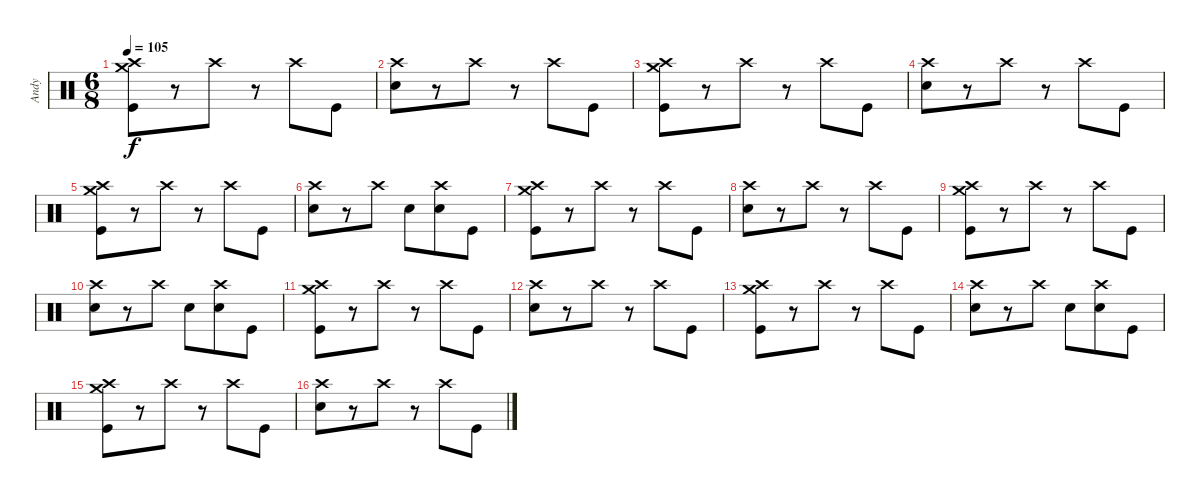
\track ("Andy" "Andy") {instrument percussion}
\staff {score}
\articulation defaults
\ts (6 8)
\tempo 105
\clef neutral
\ks c
("Kick (hit)" "Crash high (hit)" "Crash medium (hit)").8{dy f} r.8 "Crash high (hit)".8 r.8 "Crash high (hit)".8 "Kick (hit)".8 |
("Snare (hit) 2" "Crash high (hit)").8 r.8 "Crash high (hit)".8 r.8 "Crash high (hit)".8 "Kick (hit)".8 |
("Kick (hit)" "Crash high (hit)" "Crash medium (hit)").8 r.8 "Crash high (hit)".8 r.8 "Crash high (hit)".8 "Kick (hit)".8 |
("Snare (hit) 2" "Crash high (hit)").8 r.8 "Crash high (hit)".8 r.8 "Crash high (hit)".8 "Kick (hit)".8 |
("Kick (hit)" "Crash high (hit)" "Crash medium (hit)").8 r.8 "Crash high (hit)".8 r.8 "Crash high (hit)".8 "Kick (hit)".8 |
("Snare (hit) 2" "Crash high (hit)").8 r.8 "Crash high (hit)".8 "Snare (hit) 2".8 ("Crash high (hit)" "Snare (hit) 2").8 "Kick (hit)".8 |
("Kick (hit)" "Crash high (hit)" "Crash medium (hit)").8 r.8 "Crash high (hit)".8 r.8 "Crash high (hit)".8 "Kick (hit)".8 |
("Snare (hit) 2" "Crash high (hit)").8 r.8 "Crash high (hit)".8 r.8 "Crash high (hit)".8 "Kick (hit)".8 |
("Kick (hit)" "Crash high (hit)" "Crash medium (hit)").8 r.8 "Crash high (hit)".8 r.8 "Crash high (hit)".8 "Kick (hit)".8 |
("Snare (hit) 2" "Crash high (hit)").8 r.8 "Crash high (hit)".8 "Snare (hit) 2".8 ("Crash high (hit)" "Snare (hit) 2").8 "Kick (hit)".8 |
("Kick (hit)" "Crash high (hit)" "Crash medium (hit)").8 r.8 "Crash high (hit)".8 r.8 "Crash high (hit)".8 "Kick (hit)".8 |
("Snare (hit) 2" "Crash high (hit)").8 r.8 "Crash high (hit)".8 r.8 "Crash high (hit)".8 "Kick (hit)".8 |
("Kick (hit)" "Crash high (hit)" "Crash medium (hit)").8 r.8 "Crash high (hit)".8 r.8 "Crash high (hit)".8 "Kick (hit)".8 |
("Snare (hit) 2" "Crash high (hit)").8 r.8 "Crash high (hit)".8 "Snare (hit) 2".8 ("Crash high (hit)" "Snare (hit) 2").8 "Kick (hit)".8 |
("Kick (hit)" "Crash high (hit)" "Crash medium (hit)").8 r.8 "Crash high (hit)".8 r.8 "Crash high (hit)".8 "Kick (hit)".8 |
("Snare (hit) 2" "Crash high (hit)").8 r.8 "Crash high (hit)".8 r.8 "Crash high (hit)".8 "Kick (hit)".8
